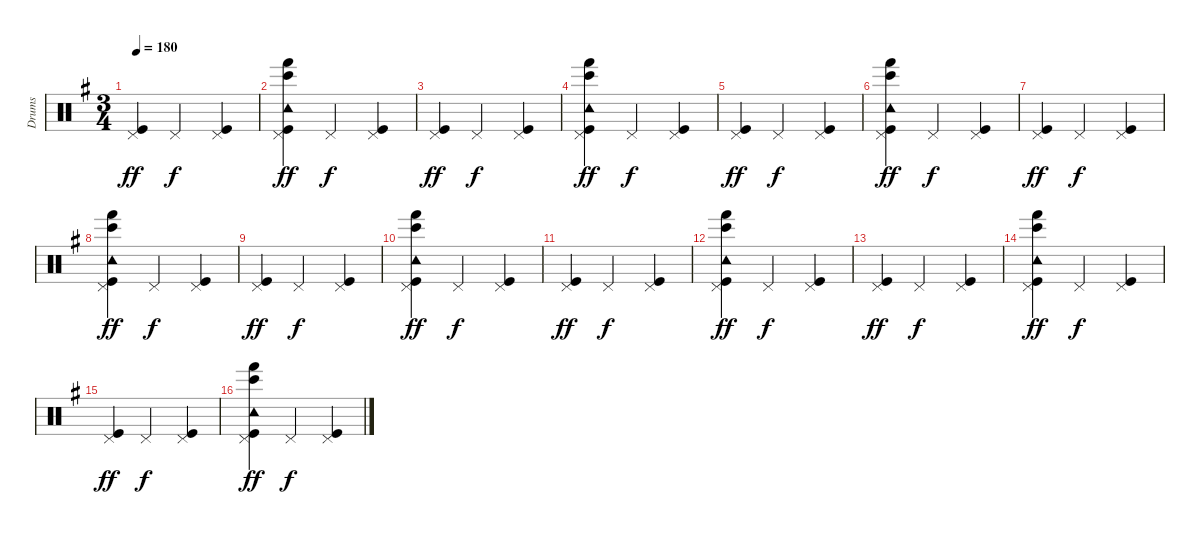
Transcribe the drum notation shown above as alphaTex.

\track ("Drums" "Drums") {instrument percussion bank 24}
\staff {score}
\articulation defaults
\ts (3 4)
\tempo 180
\clef neutral
\ks eminor
("Pedal Hi-Hat (hit)" "Kick (hit)").4{dy ff} "Pedal Hi-Hat (hit)".4{dy f} ("Pedal Hi-Hat (hit)" "Kick (hit)").4 |
("Pedal Hi-Hat (hit)" "Tambourine (hit)" "Bongo High (hit)" "Hand (hit)" "Kick (hit)").4{dy ff} "Pedal Hi-Hat (hit)".4{dy f} ("Pedal Hi-Hat (hit)" "Kick (hit)").4 |
("Pedal Hi-Hat (hit)" "Kick (hit)").4{dy ff} "Pedal Hi-Hat (hit)".4{dy f} ("Pedal Hi-Hat (hit)" "Kick (hit)").4 |
("Pedal Hi-Hat (hit)" "Tambourine (hit)" "Bongo High (hit)" "Hand (hit)" "Kick (hit)").4{dy ff} "Pedal Hi-Hat (hit)".4{dy f} ("Pedal Hi-Hat (hit)" "Kick (hit)").4 |
("Pedal Hi-Hat (hit)" "Kick (hit)").4{dy ff} "Pedal Hi-Hat (hit)".4{dy f} ("Pedal Hi-Hat (hit)" "Kick (hit)").4 |
("Pedal Hi-Hat (hit)" "Tambourine (hit)" "Bongo High (hit)" "Hand (hit)" "Kick (hit)").4{dy ff} "Pedal Hi-Hat (hit)".4{dy f} ("Pedal Hi-Hat (hit)" "Kick (hit)").4 |
("Pedal Hi-Hat (hit)" "Kick (hit)").4{dy ff} "Pedal Hi-Hat (hit)".4{dy f} ("Pedal Hi-Hat (hit)" "Kick (hit)").4 |
("Pedal Hi-Hat (hit)" "Tambourine (hit)" "Bongo High (hit)" "Hand (hit)" "Kick (hit)").4{dy ff} "Pedal Hi-Hat (hit)".4{dy f} ("Pedal Hi-Hat (hit)" "Kick (hit)").4 |
("Pedal Hi-Hat (hit)" "Kick (hit)").4{dy ff} "Pedal Hi-Hat (hit)".4{dy f} ("Pedal Hi-Hat (hit)" "Kick (hit)").4 |
("Pedal Hi-Hat (hit)" "Tambourine (hit)" "Bongo High (hit)" "Hand (hit)" "Kick (hit)").4{dy ff} "Pedal Hi-Hat (hit)".4{dy f} ("Pedal Hi-Hat (hit)" "Kick (hit)").4 |
("Pedal Hi-Hat (hit)" "Kick (hit)").4{dy ff} "Pedal Hi-Hat (hit)".4{dy f} ("Pedal Hi-Hat (hit)" "Kick (hit)").4 |
("Pedal Hi-Hat (hit)" "Tambourine (hit)" "Bongo High (hit)" "Hand (hit)" "Kick (hit)").4{dy ff} "Pedal Hi-Hat (hit)".4{dy f} ("Pedal Hi-Hat (hit)" "Kick (hit)").4 |
("Pedal Hi-Hat (hit)" "Kick (hit)").4{dy ff} "Pedal Hi-Hat (hit)".4{dy f} ("Pedal Hi-Hat (hit)" "Kick (hit)").4 |
("Pedal Hi-Hat (hit)" "Tambourine (hit)" "Bongo High (hit)" "Hand (hit)" "Kick (hit)").4{dy ff} "Pedal Hi-Hat (hit)".4{dy f} ("Pedal Hi-Hat (hit)" "Kick (hit)").4 |
("Pedal Hi-Hat (hit)" "Kick (hit)").4{dy ff} "Pedal Hi-Hat (hit)".4{dy f} ("Pedal Hi-Hat (hit)" "Kick (hit)").4 |
("Pedal Hi-Hat (hit)" "Tambourine (hit)" "Bongo High (hit)" "Hand (hit)" "Kick (hit)").4{dy ff} "Pedal Hi-Hat (hit)".4{dy f} ("Pedal Hi-Hat (hit)" "Kick (hit)").4
